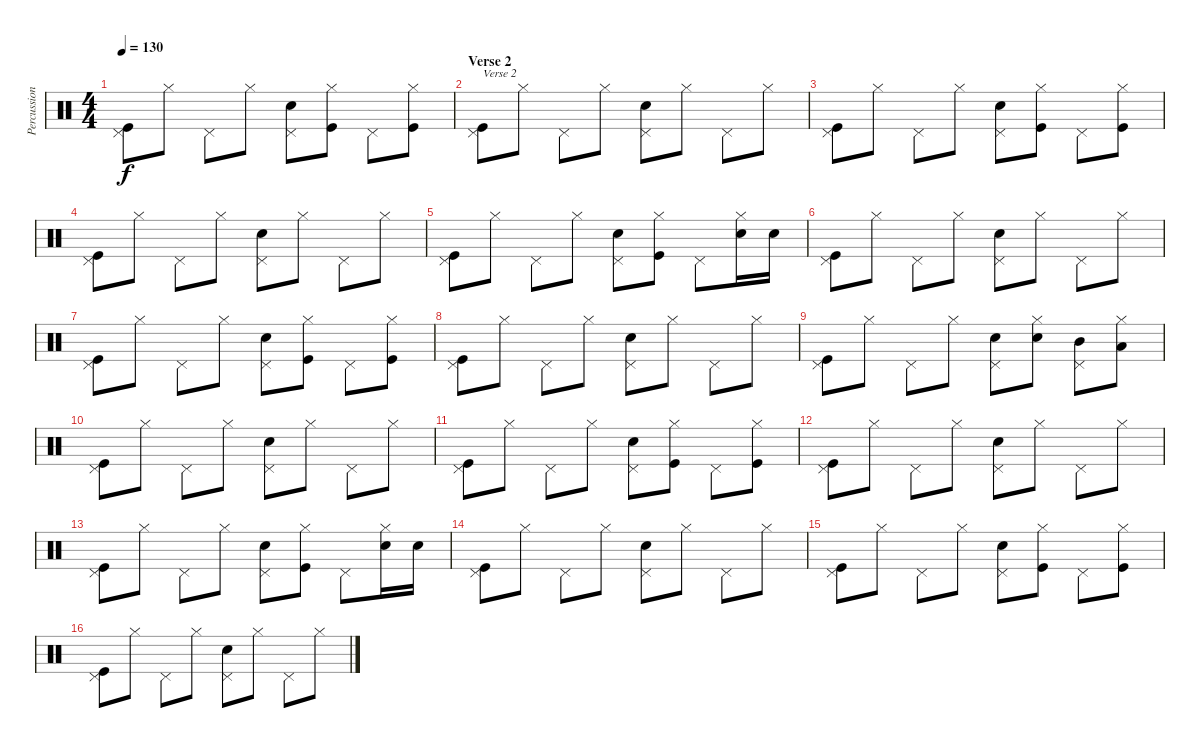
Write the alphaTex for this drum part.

\track ("Percussion" "Percussion") {instrument percussion}
\staff {score}
\articulation defaults
\ts (4 4)
\tempo 130
\clef neutral
\ks c
("Pedal Hi-Hat (hit)" "Kick (hit)").8{dy f} "Hi-Hat (closed)".8 "Pedal Hi-Hat (hit)".8 "Hi-Hat (closed)".8 ("Pedal Hi-Hat (hit)" "Snare (hit) 2").8 ("Hi-Hat (closed)" "Kick (hit)").8 "Pedal Hi-Hat (hit)".8 ("Hi-Hat (closed)" "Kick (hit)").8 |
\section ("" "Verse 2")
("Pedal Hi-Hat (hit)" "Kick (hit)").8{txt "Verse 2"} "Hi-Hat (closed)".8 "Pedal Hi-Hat (hit)".8 "Hi-Hat (closed)".8 ("Pedal Hi-Hat (hit)" "Snare (hit) 2").8 "Hi-Hat (closed)".8 "Pedal Hi-Hat (hit)".8 "Hi-Hat (closed)".8 |
("Pedal Hi-Hat (hit)" "Kick (hit)").8 "Hi-Hat (closed)".8 "Pedal Hi-Hat (hit)".8 "Hi-Hat (closed)".8 ("Pedal Hi-Hat (hit)" "Snare (hit) 2").8 ("Hi-Hat (closed)" "Kick (hit)").8 "Pedal Hi-Hat (hit)".8 ("Hi-Hat (closed)" "Kick (hit)").8 |
("Pedal Hi-Hat (hit)" "Kick (hit)").8 "Hi-Hat (closed)".8 "Pedal Hi-Hat (hit)".8 "Hi-Hat (closed)".8 ("Pedal Hi-Hat (hit)" "Snare (hit) 2").8 "Hi-Hat (closed)".8 "Pedal Hi-Hat (hit)".8 "Hi-Hat (closed)".8 |
("Pedal Hi-Hat (hit)" "Kick (hit)").8 "Hi-Hat (closed)".8 "Pedal Hi-Hat (hit)".8 "Hi-Hat (closed)".8 ("Pedal Hi-Hat (hit)" "Snare (hit) 2").8 ("Hi-Hat (closed)" "Kick (hit)").8 "Pedal Hi-Hat (hit)".8 ("Hi-Hat (closed)" "Snare (hit) 2").16 "Snare (hit) 2".16 |
("Pedal Hi-Hat (hit)" "Kick (hit)").8 "Hi-Hat (closed)".8 "Pedal Hi-Hat (hit)".8 "Hi-Hat (closed)".8 ("Pedal Hi-Hat (hit)" "Snare (hit) 2").8 "Hi-Hat (closed)".8 "Pedal Hi-Hat (hit)".8 "Hi-Hat (closed)".8 |
("Pedal Hi-Hat (hit)" "Kick (hit)").8 "Hi-Hat (closed)".8 "Pedal Hi-Hat (hit)".8 "Hi-Hat (closed)".8 ("Pedal Hi-Hat (hit)" "Snare (hit) 2").8 ("Hi-Hat (closed)" "Kick (hit)").8 "Pedal Hi-Hat (hit)".8 ("Hi-Hat (closed)" "Kick (hit)").8 |
("Pedal Hi-Hat (hit)" "Kick (hit)").8 "Hi-Hat (closed)".8 "Pedal Hi-Hat (hit)".8 "Hi-Hat (closed)".8 ("Pedal Hi-Hat (hit)" "Snare (hit) 2").8 "Hi-Hat (closed)".8 "Pedal Hi-Hat (hit)".8 "Hi-Hat (closed)".8 |
("Pedal Hi-Hat (hit)" "Kick (hit)").8 "Hi-Hat (closed)".8 "Pedal Hi-Hat (hit)".8 "Hi-Hat (closed)".8 ("Pedal Hi-Hat (hit)" "Snare (hit) 2").8 ("Hi-Hat (closed)" "Snare (hit) 2").8 ("Pedal Hi-Hat (hit)" "Mid Tom (hit)").8 ("Hi-Hat (closed)" "Low Tom (hit)").8 |
("Pedal Hi-Hat (hit)" "Kick (hit)").8 "Hi-Hat (closed)".8 "Pedal Hi-Hat (hit)".8 "Hi-Hat (closed)".8 ("Pedal Hi-Hat (hit)" "Snare (hit) 2").8 "Hi-Hat (closed)".8 "Pedal Hi-Hat (hit)".8 "Hi-Hat (closed)".8 |
("Pedal Hi-Hat (hit)" "Kick (hit)").8 "Hi-Hat (closed)".8 "Pedal Hi-Hat (hit)".8 "Hi-Hat (closed)".8 ("Pedal Hi-Hat (hit)" "Snare (hit) 2").8 ("Hi-Hat (closed)" "Kick (hit)").8 "Pedal Hi-Hat (hit)".8 ("Hi-Hat (closed)" "Kick (hit)").8 |
("Pedal Hi-Hat (hit)" "Kick (hit)").8 "Hi-Hat (closed)".8 "Pedal Hi-Hat (hit)".8 "Hi-Hat (closed)".8 ("Pedal Hi-Hat (hit)" "Snare (hit) 2").8 "Hi-Hat (closed)".8 "Pedal Hi-Hat (hit)".8 "Hi-Hat (closed)".8 |
("Pedal Hi-Hat (hit)" "Kick (hit)").8 "Hi-Hat (closed)".8 "Pedal Hi-Hat (hit)".8 "Hi-Hat (closed)".8 ("Pedal Hi-Hat (hit)" "Snare (hit) 2").8 ("Hi-Hat (closed)" "Kick (hit)").8 "Pedal Hi-Hat (hit)".8 ("Hi-Hat (closed)" "Snare (hit) 2").16 "Snare (hit) 2".16 |
("Pedal Hi-Hat (hit)" "Kick (hit)").8 "Hi-Hat (closed)".8 "Pedal Hi-Hat (hit)".8 "Hi-Hat (closed)".8 ("Pedal Hi-Hat (hit)" "Snare (hit) 2").8 "Hi-Hat (closed)".8 "Pedal Hi-Hat (hit)".8 "Hi-Hat (closed)".8 |
("Pedal Hi-Hat (hit)" "Kick (hit)").8 "Hi-Hat (closed)".8 "Pedal Hi-Hat (hit)".8 "Hi-Hat (closed)".8 ("Pedal Hi-Hat (hit)" "Snare (hit) 2").8 ("Hi-Hat (closed)" "Kick (hit)").8 "Pedal Hi-Hat (hit)".8 ("Hi-Hat (closed)" "Kick (hit)").8 |
("Pedal Hi-Hat (hit)" "Kick (hit)").8 "Hi-Hat (closed)".8 "Pedal Hi-Hat (hit)".8 "Hi-Hat (closed)".8 ("Pedal Hi-Hat (hit)" "Snare (hit) 2").8 "Hi-Hat (closed)".8 "Pedal Hi-Hat (hit)".8 "Hi-Hat (closed)".8
